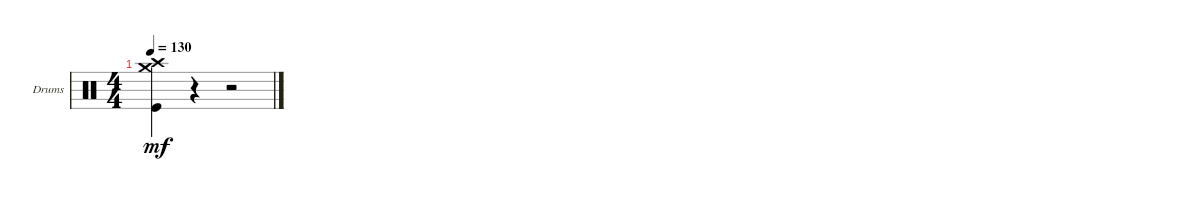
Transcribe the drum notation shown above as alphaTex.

\bracketExtendMode groupsimilarinstruments
\firstSystemTrackNameOrientation horizontal
\otherSystemsTrackNameOrientation horizontal
\track ("Drums Ghoul" "Drums") {instrument percussion}
\staff {score}
\articulation defaults
\ts (4 4)
\tempo 130
\clef neutral
\ks c
("Kick (hit)" "Crash medium (hit)" "Crash high (hit)").4{dy mf} r.4 r.2
